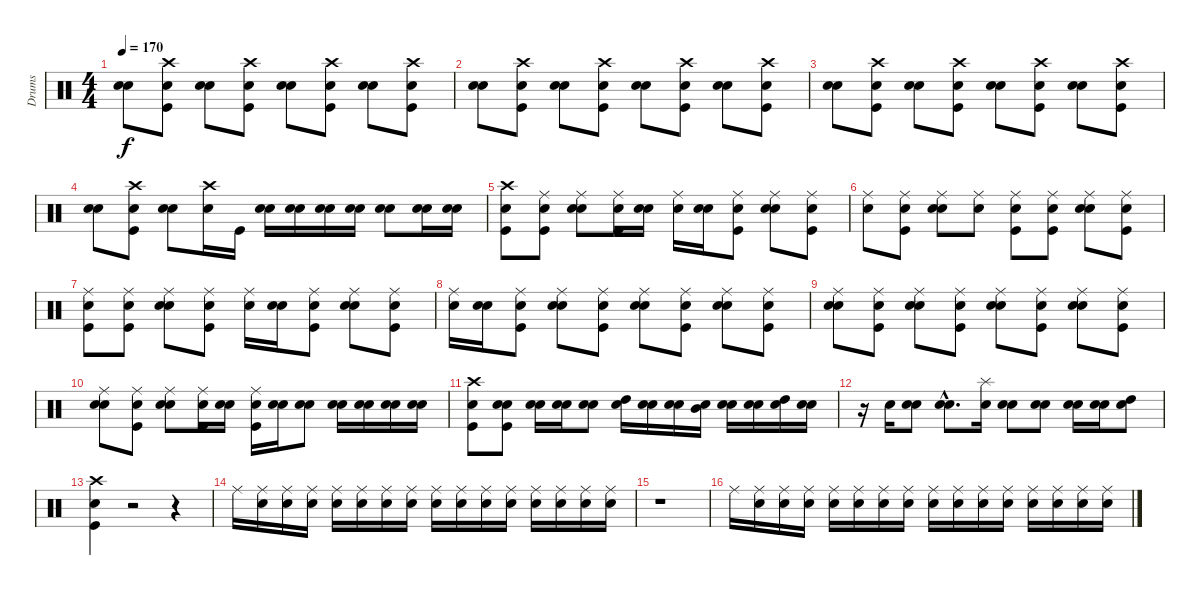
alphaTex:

\track ("Drums" "Drums") {instrument percussion}
\staff {score}
\articulation defaults
\ts (4 4)
\tempo 170
\clef neutral
\ks c
("Snare (hit)" "Electric Snare (hit)").8{dy f} ("Snare (hit)" "Kick (hit)" "Crash high (hit)").8 ("Snare (hit)" "Electric Snare (hit)").8 ("Snare (hit)" "Kick (hit)" "Crash high (hit)").8 ("Snare (hit)" "Electric Snare (hit)").8 ("Snare (hit)" "Kick (hit)" "Crash high (hit)").8 ("Snare (hit)" "Electric Snare (hit)").8 ("Snare (hit)" "Kick (hit)" "Crash high (hit)").8 |
("Snare (hit)" "Electric Snare (hit)").8 ("Snare (hit)" "Kick (hit)" "Crash high (hit)").8 ("Snare (hit)" "Electric Snare (hit)").8 ("Snare (hit)" "Kick (hit)" "Crash high (hit)").8 ("Snare (hit)" "Electric Snare (hit)").8 ("Snare (hit)" "Kick (hit)" "Crash high (hit)").8 ("Snare (hit)" "Electric Snare (hit)").8 ("Snare (hit)" "Kick (hit)" "Crash high (hit)").8 |
("Snare (hit)" "Electric Snare (hit)").8 ("Snare (hit)" "Kick (hit)" "Crash high (hit)").8 ("Snare (hit)" "Electric Snare (hit)").8 ("Snare (hit)" "Kick (hit)" "Crash high (hit)").8 ("Snare (hit)" "Electric Snare (hit)").8 ("Snare (hit)" "Kick (hit)" "Crash high (hit)").8 ("Snare (hit)" "Electric Snare (hit)").8 ("Snare (hit)" "Kick (hit)" "Crash high (hit)").8 |
("Snare (hit)" "Electric Snare (hit)").8 ("Snare (hit)" "Kick (hit)" "Crash high (hit)").8 ("Snare (hit)" "Electric Snare (hit)").8 ("Snare (hit)" "Crash high (hit)").16 "Kick (hit)".16 ("Snare (hit)" "Electric Snare (hit)").16 ("Snare (hit)" "Electric Snare (hit)").16 ("Snare (hit)" "Electric Snare (hit)").16 ("Snare (hit)" "Electric Snare (hit)").16 ("Snare (hit)" "Electric Snare (hit)").8 ("Snare (hit)" "Electric Snare (hit)").16 ("Snare (hit)" "Electric Snare (hit)").16 |
("Snare (hit)" "Kick (hit)" "Crash high (hit)").8 ("Snare (hit)" "Kick (hit)" "Ride (middle)").8 ("Snare (hit)" "Electric Snare (hit)" "Ride (middle)").8 ("Snare (hit)" "Kick (hit)" "Ride (middle)").16 ("Snare (hit)" "Electric Snare (hit)").16 ("Snare (hit)" "Ride (middle)").16 ("Snare (hit)" "Electric Snare (hit)").16 ("Snare (hit)" "Kick (hit)" "Ride (middle)").8 ("Snare (hit)" "Electric Snare (hit)" "Ride (middle)").8 ("Snare (hit)" "Kick (hit)" "Ride (middle)").8 |
("Snare (hit)" "Ride (middle)").8 ("Snare (hit)" "Kick (hit)" "Ride (middle)").8 ("Snare (hit)" "Electric Snare (hit)" "Ride (middle)").8 ("Snare (hit)" "Ride (middle)").8 ("Snare (hit)" "Kick (hit)" "Ride (middle)").8 ("Snare (hit)" "Kick (hit)" "Ride (middle)").8 ("Snare (hit)" "Electric Snare (hit)" "Ride (middle)").8 ("Snare (hit)" "Kick (hit)" "Ride (middle)").8 |
("Snare (hit)" "Kick (hit)" "Ride (middle)").8 ("Snare (hit)" "Kick (hit)" "Ride (middle)").8 ("Snare (hit)" "Electric Snare (hit)" "Ride (middle)").8 ("Snare (hit)" "Kick (hit)" "Ride (middle)").8 ("Snare (hit)" "Ride (middle)").16 ("Snare (hit)" "Electric Snare (hit)").16 ("Snare (hit)" "Kick (hit)" "Ride (middle)").8 ("Snare (hit)" "Electric Snare (hit)" "Ride (middle)").8 ("Snare (hit)" "Kick (hit)" "Ride (middle)").8 |
("Snare (hit)" "Ride (middle)").16 ("Snare (hit)" "Electric Snare (hit)").16 ("Snare (hit)" "Kick (hit)" "Ride (middle)").8 ("Snare (hit)" "Electric Snare (hit)" "Ride (middle)").8 ("Snare (hit)" "Kick (hit)" "Ride (middle)").8 ("Snare (hit)" "Electric Snare (hit)" "Ride (middle)").8 ("Snare (hit)" "Kick (hit)" "Ride (middle)").8 ("Snare (hit)" "Electric Snare (hit)" "Ride (middle)").8 ("Snare (hit)" "Kick (hit)" "Ride (middle)").8 |
("Snare (hit)" "Electric Snare (hit)" "Ride (middle)").8 ("Snare (hit)" "Kick (hit)" "Ride (middle)").8 ("Snare (hit)" "Electric Snare (hit)" "Ride (middle)").8 ("Snare (hit)" "Kick (hit)" "Ride (middle)").8 ("Snare (hit)" "Electric Snare (hit)" "Ride (middle)").8 ("Snare (hit)" "Kick (hit)" "Ride (middle)").8 ("Snare (hit)" "Electric Snare (hit)" "Ride (middle)").8 ("Snare (hit)" "Kick (hit)" "Ride (middle)").8 |
("Snare (hit)" "Electric Snare (hit)" "Ride (middle)").8 ("Snare (hit)" "Kick (hit)" "Ride (middle)").8 ("Snare (hit)" "Electric Snare (hit)" "Ride (middle)").8 ("Snare (hit)" "Kick (hit)" "Ride (middle)").16 ("Snare (hit)" "Electric Snare (hit)").16 ("Snare (hit)" "Kick (hit)" "Ride (middle)").16 ("Snare (hit)" "Electric Snare (hit)").16 ("Snare (hit)" "Electric Snare (hit)").8 ("Snare (hit)" "Electric Snare (hit)").16 ("Snare (hit)" "Electric Snare (hit)").16 ("Snare (hit)" "Electric Snare (hit)").16 ("Snare (hit)" "Electric Snare (hit)").16 |
("Snare (hit)" "Kick (hit)" "Crash high (hit)").8 ("Snare (hit)" "Kick (hit)" "Electric Snare (hit)").8 ("Snare (hit)" "Electric Snare (hit)").16 ("Snare (hit)" "Electric Snare (hit)").16 ("Snare (hit)" "Electric Snare (hit)").8 ("Snare (hit)" "High Tom (hit)").16 ("Snare (hit)" "Electric Snare (hit)").16 ("Snare (hit)" "Electric Snare (hit)").16 ("Snare (hit)" "Mid Tom (hit)").16 ("Snare (hit)" "Electric Snare (hit)").16 ("Snare (hit)" "Electric Snare (hit)").16 ("Snare (hit)" "High Tom (hit)").16 ("Snare (hit)" "Electric Snare (hit)").16 |
r.16 "Electric Snare (hit)".16 ("Snare (hit)" "Electric Snare (hit)").8 ("Snare (hit)"{hac} "Electric Snare (hit)"{hac}).8{d} ("Snare (hit)" "Splash (hit)").16 ("Snare (hit)" "Electric Snare (hit)").8 ("Snare (hit)" "Electric Snare (hit)").8 ("Snare (hit)" "Electric Snare (hit)").16 ("Snare (hit)" "Electric Snare (hit)").16 ("Snare (hit)" "High Tom (hit)").8 |
("Snare (hit)" "Kick (hit)" "Crash high (hit)").4 r.2 r.4 |
"Ride (middle)".16 ("Snare (hit)" "Ride (middle)").16 ("Snare (hit)" "Ride (middle)").16 ("Snare (hit)" "Ride (middle)").16 ("Snare (hit)" "Ride (middle)").16 ("Snare (hit)" "Ride (middle)").16 ("Snare (hit)" "Ride (middle)").16 ("Snare (hit)" "Ride (middle)").16 ("Snare (hit)" "Ride (middle)").16 ("Snare (hit)" "Ride (middle)").16 ("Snare (hit)" "Ride (middle)").16 ("Snare (hit)" "Ride (middle)").16 ("Snare (hit)" "Ride (middle)").16 ("Snare (hit)" "Ride (middle)").16 ("Snare (hit)" "Ride (middle)").16 ("Snare (hit)" "Ride (middle)").16 |
r.1 |
"Ride (middle)".16 ("Snare (hit)" "Ride (middle)").16 ("Snare (hit)" "Ride (middle)").16 ("Snare (hit)" "Ride (middle)").16 ("Snare (hit)" "Ride (middle)").16 ("Snare (hit)" "Ride (middle)").16 ("Snare (hit)" "Ride (middle)").16 ("Snare (hit)" "Ride (middle)").16 ("Snare (hit)" "Ride (middle)").16 ("Snare (hit)" "Ride (middle)").16 ("Snare (hit)" "Ride (middle)").16 ("Snare (hit)" "Ride (middle)").16 ("Snare (hit)" "Ride (middle)").16 ("Snare (hit)" "Ride (middle)").16 ("Snare (hit)" "Ride (middle)").16 ("Snare (hit)" "Ride (middle)").16
